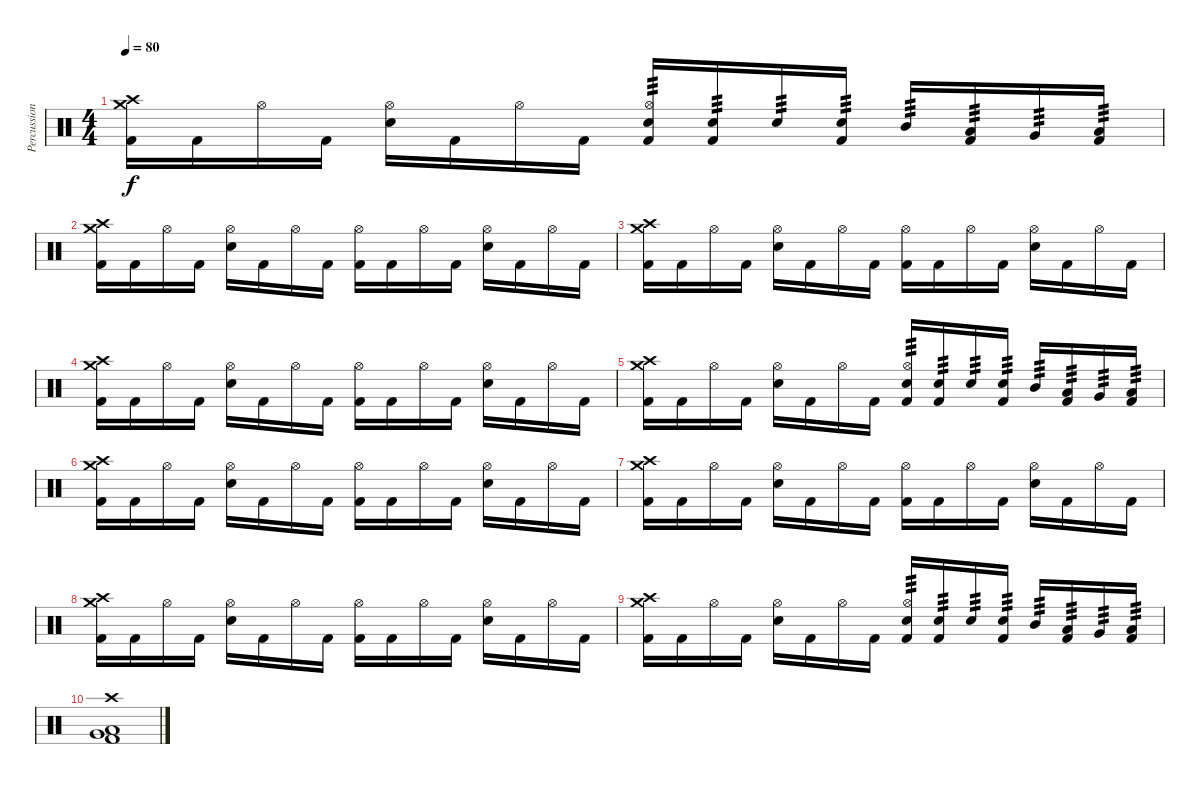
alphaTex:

\track ("Percussion" "Percussion") {instrument percussion}
\staff {score}
\articulation defaults
\ts (4 4)
\tempo 80
\clef neutral
\ks c
("Crash medium (hit)" "Crash high (hit)" "Kick (hit) 2").16{dy f} "Kick (hit) 2".16 "Hi-Hat (open)".16 "Kick (hit) 2".16 ("Hi-Hat (open)" "Electric Snare (hit)").16 "Kick (hit) 2".16 "Hi-Hat (open)".16 "Kick (hit) 2".16 ("Hi-Hat (open)" "Electric Snare (hit)" "Kick (hit) 2").16{tp 3} ("Electric Snare (hit)" "Kick (hit) 2").16{tp 3} "Electric Snare (hit)".16{tp 3} ("Electric Snare (hit)" "Kick (hit) 2").16{tp 3} "Mid Tom (hit)".16{tp 3} ("Low Tom (hit)" "Kick (hit) 2").16{tp 3} "Very Low Tom (hit)".16{tp 3} ("Low Floor Tom (hit)" "Kick (hit) 2").16{tp 3} |
("Crash medium (hit)" "Crash high (hit)" "Kick (hit) 2").16 "Kick (hit) 2".16 "Hi-Hat (open)".16 "Kick (hit) 2".16 ("Hi-Hat (open)" "Electric Snare (hit)").16 "Kick (hit) 2".16 "Hi-Hat (open)".16 "Kick (hit) 2".16 ("Hi-Hat (open)" "Kick (hit) 2").16 "Kick (hit) 2".16 "Hi-Hat (open)".16 "Kick (hit) 2".16 ("Hi-Hat (open)" "Electric Snare (hit)").16 "Kick (hit) 2".16 "Hi-Hat (open)".16 "Kick (hit) 2".16 |
("Crash medium (hit)" "Crash high (hit)" "Kick (hit) 2").16 "Kick (hit) 2".16 "Hi-Hat (open)".16 "Kick (hit) 2".16 ("Hi-Hat (open)" "Electric Snare (hit)").16 "Kick (hit) 2".16 "Hi-Hat (open)".16 "Kick (hit) 2".16 ("Hi-Hat (open)" "Kick (hit) 2").16 "Kick (hit) 2".16 "Hi-Hat (open)".16 "Kick (hit) 2".16 ("Hi-Hat (open)" "Electric Snare (hit)").16 "Kick (hit) 2".16 "Hi-Hat (open)".16 "Kick (hit) 2".16 |
("Crash medium (hit)" "Crash high (hit)" "Kick (hit) 2").16 "Kick (hit) 2".16 "Hi-Hat (open)".16 "Kick (hit) 2".16 ("Hi-Hat (open)" "Electric Snare (hit)").16 "Kick (hit) 2".16 "Hi-Hat (open)".16 "Kick (hit) 2".16 ("Hi-Hat (open)" "Kick (hit) 2").16 "Kick (hit) 2".16 "Hi-Hat (open)".16 "Kick (hit) 2".16 ("Hi-Hat (open)" "Electric Snare (hit)").16 "Kick (hit) 2".16 "Hi-Hat (open)".16 "Kick (hit) 2".16 |
("Crash medium (hit)" "Crash high (hit)" "Kick (hit) 2").16 "Kick (hit) 2".16 "Hi-Hat (open)".16 "Kick (hit) 2".16 ("Hi-Hat (open)" "Electric Snare (hit)").16 "Kick (hit) 2".16 "Hi-Hat (open)".16 "Kick (hit) 2".16 ("Hi-Hat (open)" "Electric Snare (hit)" "Kick (hit) 2").16{tp 3} ("Electric Snare (hit)" "Kick (hit) 2").16{tp 3} "Electric Snare (hit)".16{tp 3} ("Electric Snare (hit)" "Kick (hit) 2").16{tp 3} "Mid Tom (hit)".16{tp 3} ("Low Tom (hit)" "Kick (hit) 2").16{tp 3} "Very Low Tom (hit)".16{tp 3} ("Low Floor Tom (hit)" "Kick (hit) 2").16{tp 3} |
("Crash medium (hit)" "Crash high (hit)" "Kick (hit) 2").16 "Kick (hit) 2".16 "Hi-Hat (open)".16 "Kick (hit) 2".16 ("Hi-Hat (open)" "Electric Snare (hit)").16 "Kick (hit) 2".16 "Hi-Hat (open)".16 "Kick (hit) 2".16 ("Hi-Hat (open)" "Kick (hit) 2").16 "Kick (hit) 2".16 "Hi-Hat (open)".16 "Kick (hit) 2".16 ("Hi-Hat (open)" "Electric Snare (hit)").16 "Kick (hit) 2".16 "Hi-Hat (open)".16 "Kick (hit) 2".16 |
("Crash medium (hit)" "Crash high (hit)" "Kick (hit) 2").16 "Kick (hit) 2".16 "Hi-Hat (open)".16 "Kick (hit) 2".16 ("Hi-Hat (open)" "Electric Snare (hit)").16 "Kick (hit) 2".16 "Hi-Hat (open)".16 "Kick (hit) 2".16 ("Hi-Hat (open)" "Kick (hit) 2").16 "Kick (hit) 2".16 "Hi-Hat (open)".16 "Kick (hit) 2".16 ("Hi-Hat (open)" "Electric Snare (hit)").16 "Kick (hit) 2".16 "Hi-Hat (open)".16 "Kick (hit) 2".16 |
("Crash medium (hit)" "Crash high (hit)" "Kick (hit) 2").16 "Kick (hit) 2".16 "Hi-Hat (open)".16 "Kick (hit) 2".16 ("Hi-Hat (open)" "Electric Snare (hit)").16 "Kick (hit) 2".16 "Hi-Hat (open)".16 "Kick (hit) 2".16 ("Hi-Hat (open)" "Kick (hit) 2").16 "Kick (hit) 2".16 "Hi-Hat (open)".16 "Kick (hit) 2".16 ("Hi-Hat (open)" "Electric Snare (hit)").16 "Kick (hit) 2".16 "Hi-Hat (open)".16 "Kick (hit) 2".16 |
("Crash medium (hit)" "Crash high (hit)" "Kick (hit) 2").16 "Kick (hit) 2".16 "Hi-Hat (open)".16 "Kick (hit) 2".16 ("Hi-Hat (open)" "Electric Snare (hit)").16 "Kick (hit) 2".16 "Hi-Hat (open)".16 "Kick (hit) 2".16 ("Hi-Hat (open)" "Electric Snare (hit)" "Kick (hit) 2").16{tp 3} ("Electric Snare (hit)" "Kick (hit) 2").16{tp 3} "Electric Snare (hit)".16{tp 3} ("Electric Snare (hit)" "Kick (hit) 2").16{tp 3} "Mid Tom (hit)".16{tp 3} ("Low Tom (hit)" "Kick (hit) 2").16{tp 3} "Very Low Tom (hit)".16{tp 3} ("Low Floor Tom (hit)" "Kick (hit) 2").16{tp 3} |
("Very Low Tom (hit)" "Low Floor Tom (hit)" "Crash high (hit)" "Kick (hit) 2").1
